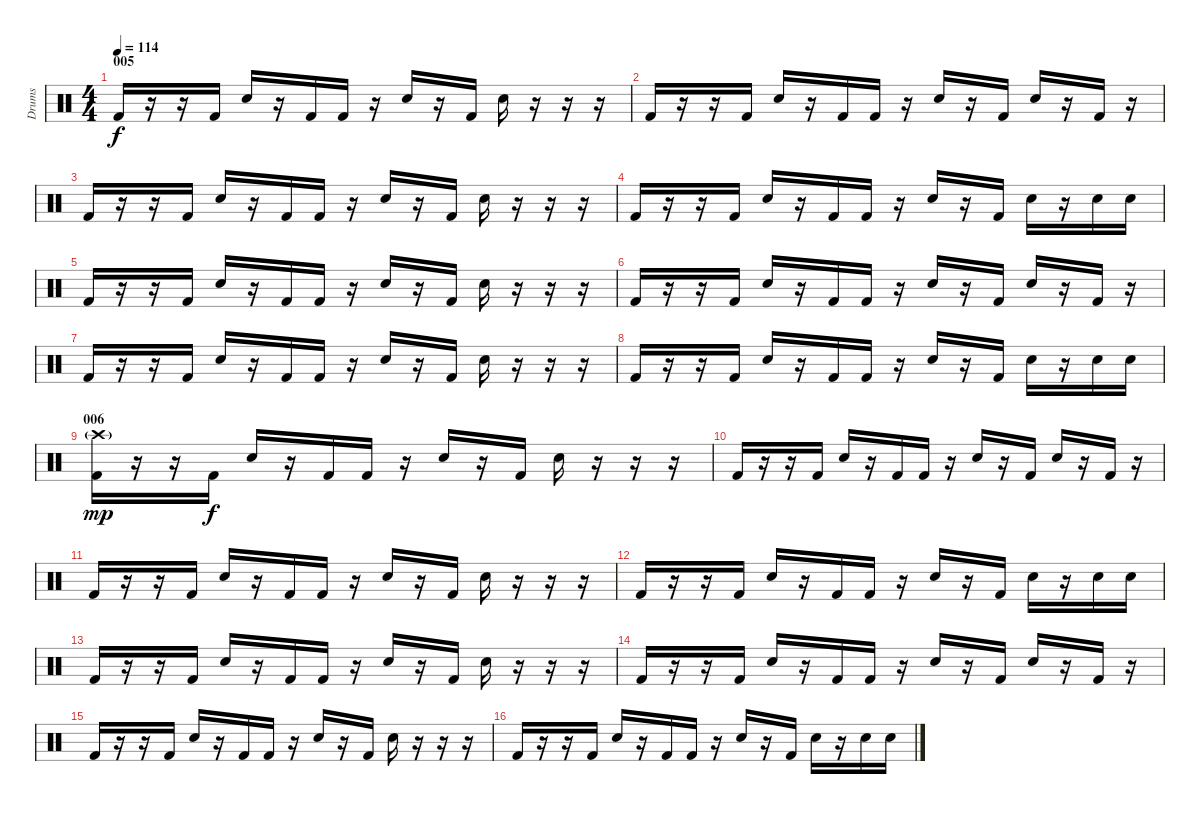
\track ("Drums" "Drums") {instrument percussion}
\staff {score}
\articulation defaults
\ts (4 4)
\section ("" "005")
\tempo 114
\clef neutral
\ks c "Kick (hit) 2".16{dy f}
r.16 r.16 "Kick (hit) 2".16 "Electric Snare (hit)".16 r.16 "Kick (hit) 2".16 "Kick (hit) 2".16 r.16 "Electric Snare (hit)".16 r.16 "Kick (hit) 2".16 "Electric Snare (hit)".16 r.16 r.16 r.16 |
"Kick (hit) 2".16 r.16 r.16 "Kick (hit) 2".16 "Electric Snare (hit)".16 r.16 "Kick (hit) 2".16 "Kick (hit) 2".16 r.16 "Electric Snare (hit)".16 r.16 "Kick (hit) 2".16 "Electric Snare (hit)".16 r.16 "Kick (hit) 2".16 r.16 |
"Kick (hit) 2".16 r.16 r.16 "Kick (hit) 2".16 "Electric Snare (hit)".16 r.16 "Kick (hit) 2".16 "Kick (hit) 2".16 r.16 "Electric Snare (hit)".16 r.16 "Kick (hit) 2".16 "Electric Snare (hit)".16 r.16 r.16 r.16 |
"Kick (hit) 2".16 r.16 r.16 "Kick (hit) 2".16 "Electric Snare (hit)".16 r.16 "Kick (hit) 2".16 "Kick (hit) 2".16 r.16 "Electric Snare (hit)".16 r.16 "Kick (hit) 2".16 "Electric Snare (hit)".16 r.16 "Electric Snare (hit)".16 "Electric Snare (hit)".16 |
"Kick (hit) 2".16 r.16 r.16 "Kick (hit) 2".16 "Electric Snare (hit)".16 r.16 "Kick (hit) 2".16 "Kick (hit) 2".16 r.16 "Electric Snare (hit)".16 r.16 "Kick (hit) 2".16 "Electric Snare (hit)".16 r.16 r.16 r.16 |
"Kick (hit) 2".16 r.16 r.16 "Kick (hit) 2".16 "Electric Snare (hit)".16 r.16 "Kick (hit) 2".16 "Kick (hit) 2".16 r.16 "Electric Snare (hit)".16 r.16 "Kick (hit) 2".16 "Electric Snare (hit)".16 r.16 "Kick (hit) 2".16 r.16 |
"Kick (hit) 2".16 r.16 r.16 "Kick (hit) 2".16 "Electric Snare (hit)".16 r.16 "Kick (hit) 2".16 "Kick (hit) 2".16 r.16 "Electric Snare (hit)".16 r.16 "Kick (hit) 2".16 "Electric Snare (hit)".16 r.16 r.16 r.16 |
"Kick (hit) 2".16 r.16 r.16 "Kick (hit) 2".16 "Electric Snare (hit)".16 r.16 "Kick (hit) 2".16 "Kick (hit) 2".16 r.16 "Electric Snare (hit)".16 r.16 "Kick (hit) 2".16 "Electric Snare (hit)".16 r.16 "Electric Snare (hit)".16 "Electric Snare (hit)".16 |
\section ("" "006")
("Kick (hit) 2" "Crash high (hit)"{g}).16{dy mp} r.16 r.16 "Kick (hit) 2".16{dy f} "Electric Snare (hit)".16 r.16 "Kick (hit) 2".16 "Kick (hit) 2".16 r.16 "Electric Snare (hit)".16 r.16 "Kick (hit) 2".16 "Electric Snare (hit)".16 r.16 r.16 r.16 |
"Kick (hit) 2".16 r.16 r.16 "Kick (hit) 2".16 "Electric Snare (hit)".16 r.16 "Kick (hit) 2".16 "Kick (hit) 2".16 r.16 "Electric Snare (hit)".16 r.16 "Kick (hit) 2".16 "Electric Snare (hit)".16 r.16 "Kick (hit) 2".16 r.16 |
"Kick (hit) 2".16 r.16 r.16 "Kick (hit) 2".16 "Electric Snare (hit)".16 r.16 "Kick (hit) 2".16 "Kick (hit) 2".16 r.16 "Electric Snare (hit)".16 r.16 "Kick (hit) 2".16 "Electric Snare (hit)".16 r.16 r.16 r.16 |
"Kick (hit) 2".16 r.16 r.16 "Kick (hit) 2".16 "Electric Snare (hit)".16 r.16 "Kick (hit) 2".16 "Kick (hit) 2".16 r.16 "Electric Snare (hit)".16 r.16 "Kick (hit) 2".16 "Electric Snare (hit)".16 r.16 "Electric Snare (hit)".16 "Electric Snare (hit)".16 |
"Kick (hit) 2".16 r.16 r.16 "Kick (hit) 2".16 "Electric Snare (hit)".16 r.16 "Kick (hit) 2".16 "Kick (hit) 2".16 r.16 "Electric Snare (hit)".16 r.16 "Kick (hit) 2".16 "Electric Snare (hit)".16 r.16 r.16 r.16 |
"Kick (hit) 2".16 r.16 r.16 "Kick (hit) 2".16 "Electric Snare (hit)".16 r.16 "Kick (hit) 2".16 "Kick (hit) 2".16 r.16 "Electric Snare (hit)".16 r.16 "Kick (hit) 2".16 "Electric Snare (hit)".16 r.16 "Kick (hit) 2".16 r.16 |
"Kick (hit) 2".16 r.16 r.16 "Kick (hit) 2".16 "Electric Snare (hit)".16 r.16 "Kick (hit) 2".16 "Kick (hit) 2".16 r.16 "Electric Snare (hit)".16 r.16 "Kick (hit) 2".16 "Electric Snare (hit)".16 r.16 r.16 r.16 |
"Kick (hit) 2".16 r.16 r.16 "Kick (hit) 2".16 "Electric Snare (hit)".16 r.16 "Kick (hit) 2".16 "Kick (hit) 2".16 r.16 "Electric Snare (hit)".16 r.16 "Kick (hit) 2".16 "Electric Snare (hit)".16 r.16 "Electric Snare (hit)".16 "Electric Snare (hit)".16
